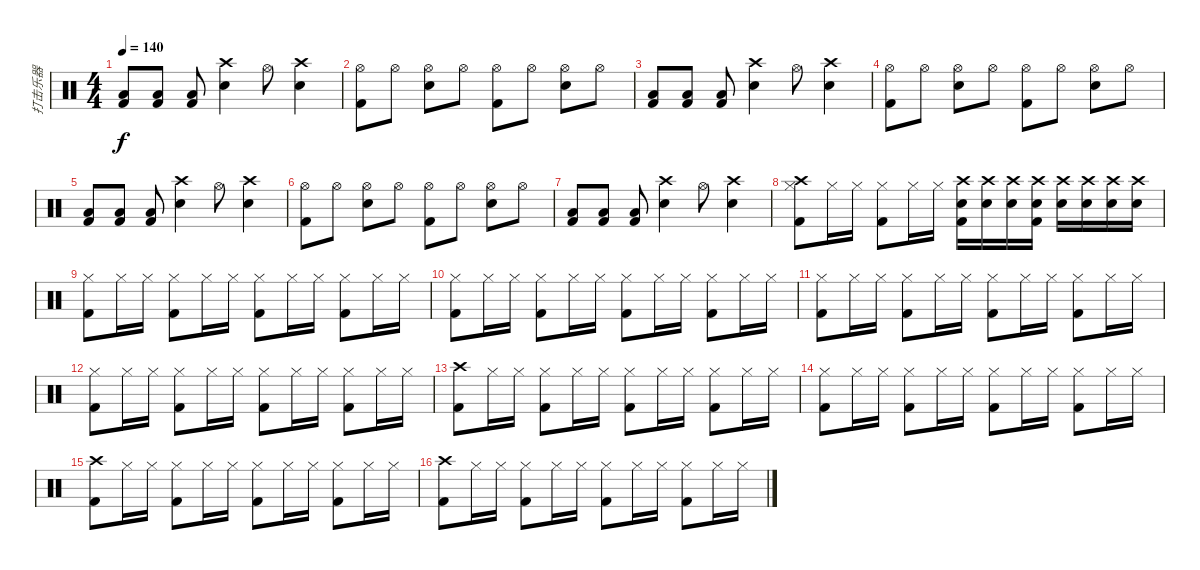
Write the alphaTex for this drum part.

\track ("打击乐器" "打击乐器") {instrument percussion}
\staff {score}
\articulation defaults
\ts (4 4)
\tempo 140
\clef neutral
\ks c
("Low Floor Tom (hit)" "Kick (hit) 2").8{dy f} ("Low Floor Tom (hit)" "Kick (hit) 2").8 ("Low Floor Tom (hit)" "Kick (hit) 2").8 ("Crash high (hit)" "Snare (hit) 2").4 "Hi-Hat (open)".8 ("Crash high (hit)" "Snare (hit) 2").4 |
("Hi-Hat (open)" "Kick (hit) 2").8 "Hi-Hat (open)".8 ("Hi-Hat (open)" "Snare (hit) 2").8 "Hi-Hat (open)".8 ("Hi-Hat (open)" "Kick (hit) 2").8 "Hi-Hat (open)".8 ("Hi-Hat (open)" "Snare (hit) 2").8 "Hi-Hat (open)".8 |
("Low Floor Tom (hit)" "Kick (hit) 2").8 ("Low Floor Tom (hit)" "Kick (hit) 2").8 ("Low Floor Tom (hit)" "Kick (hit) 2").8 ("Crash high (hit)" "Snare (hit) 2").4 "Hi-Hat (open)".8 ("Crash high (hit)" "Snare (hit) 2").4 |
("Hi-Hat (open)" "Kick (hit) 2").8 "Hi-Hat (open)".8 ("Hi-Hat (open)" "Snare (hit) 2").8 "Hi-Hat (open)".8 ("Hi-Hat (open)" "Kick (hit) 2").8 "Hi-Hat (open)".8 ("Hi-Hat (open)" "Snare (hit) 2").8 "Hi-Hat (open)".8 |
("Low Floor Tom (hit)" "Kick (hit) 2").8 ("Low Floor Tom (hit)" "Kick (hit) 2").8 ("Low Floor Tom (hit)" "Kick (hit) 2").8 ("Crash high (hit)" "Snare (hit) 2").4 "Hi-Hat (open)".8 ("Crash high (hit)" "Snare (hit) 2").4 |
("Hi-Hat (open)" "Kick (hit) 2").8 "Hi-Hat (open)".8 ("Hi-Hat (open)" "Snare (hit) 2").8 "Hi-Hat (open)".8 ("Hi-Hat (open)" "Kick (hit) 2").8 "Hi-Hat (open)".8 ("Hi-Hat (open)" "Snare (hit) 2").8 "Hi-Hat (open)".8 |
("Low Floor Tom (hit)" "Kick (hit) 2").8 ("Low Floor Tom (hit)" "Kick (hit) 2").8 ("Low Floor Tom (hit)" "Kick (hit) 2").8 ("Crash high (hit)" "Snare (hit) 2").4 "Hi-Hat (open)".8 ("Crash high (hit)" "Snare (hit) 2").4 |
("Crash high (hit)" "Hi-Hat (closed)" "Kick (hit) 2").8 "Hi-Hat (closed)".16 "Hi-Hat (closed)".16 ("Hi-Hat (closed)" "Kick (hit) 2").8 "Hi-Hat (closed)".16 "Hi-Hat (closed)".16 ("Crash high (hit)" "Snare (hit) 2" "Kick (hit) 2").16 ("Crash high (hit)" "Snare (hit) 2").16 ("Crash high (hit)" "Snare (hit) 2").16 ("Crash high (hit)" "Snare (hit) 2" "Kick (hit) 2").16 ("Crash high (hit)" "Snare (hit) 2").16 ("Crash high (hit)" "Snare (hit) 2").16 ("Crash high (hit)" "Snare (hit) 2").16 ("Crash high (hit)" "Snare (hit) 2").16 |
("Hi-Hat (closed)" "Kick (hit) 2").8 "Hi-Hat (closed)".16 "Hi-Hat (closed)".16 ("Hi-Hat (closed)" "Kick (hit) 2").8 "Hi-Hat (closed)".16 "Hi-Hat (closed)".16 ("Hi-Hat (closed)" "Kick (hit) 2").8 "Hi-Hat (closed)".16 "Hi-Hat (closed)".16 ("Hi-Hat (closed)" "Kick (hit) 2").8 "Hi-Hat (closed)".16 "Hi-Hat (closed)".16 |
("Hi-Hat (closed)" "Kick (hit) 2").8 "Hi-Hat (closed)".16 "Hi-Hat (closed)".16 ("Hi-Hat (closed)" "Kick (hit) 2").8 "Hi-Hat (closed)".16 "Hi-Hat (closed)".16 ("Hi-Hat (closed)" "Kick (hit) 2").8 "Hi-Hat (closed)".16 "Hi-Hat (closed)".16 ("Hi-Hat (closed)" "Kick (hit) 2").8 "Hi-Hat (closed)".16 "Hi-Hat (closed)".16 |
("Hi-Hat (closed)" "Kick (hit) 2").8 "Hi-Hat (closed)".16 "Hi-Hat (closed)".16 ("Hi-Hat (closed)" "Kick (hit) 2").8 "Hi-Hat (closed)".16 "Hi-Hat (closed)".16 ("Hi-Hat (closed)" "Kick (hit) 2").8 "Hi-Hat (closed)".16 "Hi-Hat (closed)".16 ("Hi-Hat (closed)" "Kick (hit) 2").8 "Hi-Hat (closed)".16 "Hi-Hat (closed)".16 |
("Hi-Hat (closed)" "Kick (hit) 2").8 "Hi-Hat (closed)".16 "Hi-Hat (closed)".16 ("Hi-Hat (closed)" "Kick (hit) 2").8 "Hi-Hat (closed)".16 "Hi-Hat (closed)".16 ("Hi-Hat (closed)" "Kick (hit) 2").8 "Hi-Hat (closed)".16 "Hi-Hat (closed)".16 ("Hi-Hat (closed)" "Kick (hit) 2").8 "Hi-Hat (closed)".16 "Hi-Hat (closed)".16 |
("Crash high (hit)" "Kick (hit) 2").8 "Hi-Hat (closed)".16 "Hi-Hat (closed)".16 ("Hi-Hat (closed)" "Kick (hit) 2").8 "Hi-Hat (closed)".16 "Hi-Hat (closed)".16 ("Hi-Hat (closed)" "Kick (hit) 2").8 "Hi-Hat (closed)".16 "Hi-Hat (closed)".16 ("Hi-Hat (closed)" "Kick (hit) 2").8 "Hi-Hat (closed)".16 "Hi-Hat (closed)".16 |
("Hi-Hat (closed)" "Kick (hit) 2").8 "Hi-Hat (closed)".16 "Hi-Hat (closed)".16 ("Hi-Hat (closed)" "Kick (hit) 2").8 "Hi-Hat (closed)".16 "Hi-Hat (closed)".16 ("Hi-Hat (closed)" "Kick (hit) 2").8 "Hi-Hat (closed)".16 "Hi-Hat (closed)".16 ("Hi-Hat (closed)" "Kick (hit) 2").8 "Hi-Hat (closed)".16 "Hi-Hat (closed)".16 |
("Crash high (hit)" "Kick (hit) 2").8 "Hi-Hat (closed)".16 "Hi-Hat (closed)".16 ("Hi-Hat (closed)" "Kick (hit) 2").8 "Hi-Hat (closed)".16 "Hi-Hat (closed)".16 ("Hi-Hat (closed)" "Kick (hit) 2").8 "Hi-Hat (closed)".16 "Hi-Hat (closed)".16 ("Hi-Hat (closed)" "Kick (hit) 2").8 "Hi-Hat (closed)".16 "Hi-Hat (closed)".16 |
("Crash high (hit)" "Kick (hit) 2").8 "Hi-Hat (closed)".16 "Hi-Hat (closed)".16 ("Hi-Hat (closed)" "Kick (hit) 2").8 "Hi-Hat (closed)".16 "Hi-Hat (closed)".16 ("Hi-Hat (closed)" "Kick (hit) 2").8 "Hi-Hat (closed)".16 "Hi-Hat (closed)".16 ("Hi-Hat (closed)" "Kick (hit) 2").8 "Hi-Hat (closed)".16 "Hi-Hat (closed)".16
